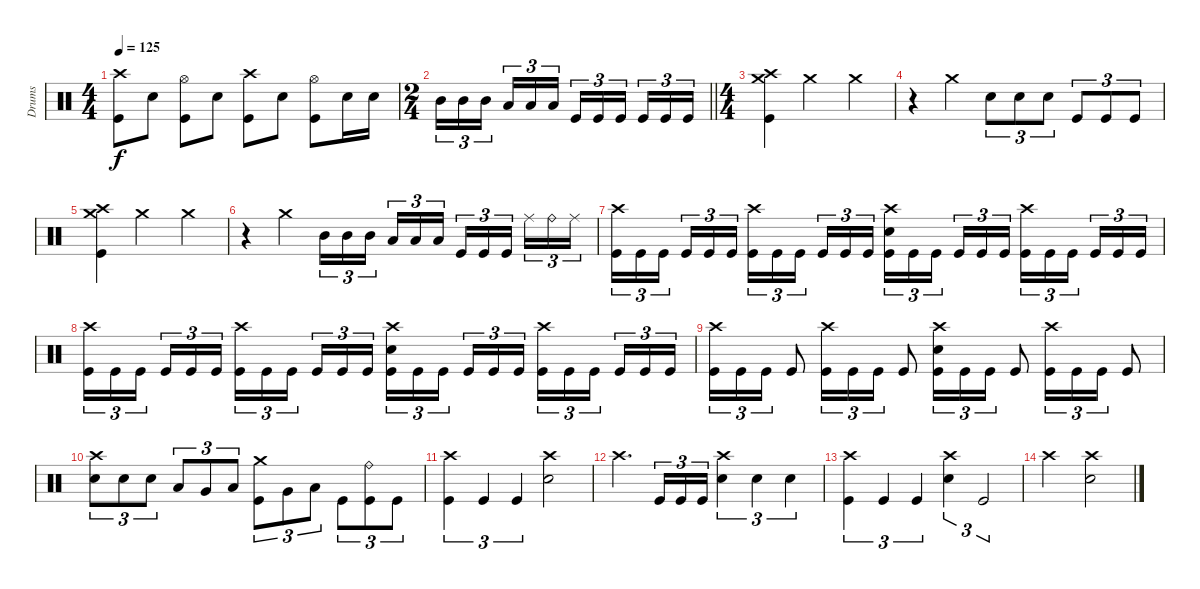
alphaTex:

\track ("Drums" "Drums") {instrument percussion}
\staff
\articulation defaults
\ts (4 4)
\tempo 125
\clef neutral
\ks c
("Crash high (hit)" "Kick (hit)").8{dy f} "Electric Snare (hit)".8 ("Hi-Hat (open)" "Kick (hit)").8 "Electric Snare (hit)".8 ("Crash high (hit)" "Kick (hit)").8 "Electric Snare (hit)".8 ("Hi-Hat (open)" "Kick (hit)").8 "Electric Snare (hit)".16 "Electric Snare (hit)".16 |
\ts (2 4)
\barLineRight lightlight "Mid Tom (hit)".16{tu (3 2)} "Mid Tom (hit)".16{tu (3 2)} "Mid Tom (hit)".16{tu (3 2) beam splitsecondary} "Low Tom (hit)".16{tu (3 2)} "Low Tom (hit)".16{tu (3 2)} "Low Tom (hit)".16{tu (3 2)} "Kick (hit)".16{tu (3 2)} "Kick (hit)".16{tu (3 2)} "Kick (hit)".16{tu (3 2) beam splitsecondary} "Kick (hit)".16{tu (3 2)} "Kick (hit)".16{tu (3 2)} "Kick (hit)".16{tu (3 2)}
|
\ts (4 4)
("Crash high (hit)" "Crash medium (hit)" "Kick (hit)").4 "Crash medium (hit)".2 "Crash medium (hit)".4 |
r.4 "Crash medium (hit)".4 "Electric Snare (hit)".8{tu (3 2)} "Electric Snare (hit)".8{tu (3 2)} "Electric Snare (hit)".8{tu (3 2)} "Kick (hit)".8{tu (3 2)} "Kick (hit)".8{tu (3 2)} "Kick (hit)".8{tu (3 2)} |
("Crash high (hit)" "Crash medium (hit)" "Kick (hit)").4 "Crash medium (hit)".2 "Crash medium (hit)".4 |
r.4 "Crash medium (hit)".4 "Mid Tom (hit)".16{tu (3 2)} "Mid Tom (hit)".16{tu (3 2)} "Mid Tom (hit)".16{tu (3 2) beam splitsecondary} "Low Tom (hit)".16{tu (3 2)} "Low Tom (hit)".16{tu (3 2)} "Low Tom (hit)".16{tu (3 2)} "Kick (hit)".16{tu (3 2)} "Kick (hit)".16{tu (3 2)} "Kick (hit)".16{tu (3 2) beam splitsecondary} "Ride (middle)".16{tu (3 2)} "Ride (bell)".16{tu (3 2)} "Ride (middle)".16{tu (3 2)} |
("Crash high (hit)" "Kick (hit)").16{tu (3 2)} "Kick (hit)".16{tu (3 2)} "Kick (hit)".16{tu (3 2) beam splitsecondary} "Kick (hit)".16{tu (3 2)} "Kick (hit)".16{tu (3 2)} "Kick (hit)".16{tu (3 2)} ("Crash high (hit)" "Kick (hit)").16{tu (3 2)} "Kick (hit)".16{tu (3 2)} "Kick (hit)".16{tu (3 2) beam splitsecondary} "Kick (hit)".16{tu (3 2)} "Kick (hit)".16{tu (3 2)} "Kick (hit)".16{tu (3 2)} ("Crash high (hit)" "Electric Snare (hit)" "Kick (hit)").16{tu (3 2)} "Kick (hit)".16{tu (3 2)} "Kick (hit)".16{tu (3 2) beam splitsecondary} "Kick (hit)".16{tu (3 2)} "Kick (hit)".16{tu (3 2)} "Kick (hit)".16{tu (3 2)} ("Crash high (hit)" "Kick (hit)").16{tu (3 2)} "Kick (hit)".16{tu (3 2)} "Kick (hit)".16{tu (3 2) beam splitsecondary} "Kick (hit)".16{tu (3 2)} "Kick (hit)".16{tu (3 2)} "Kick (hit)".16{tu (3 2)} |
("Crash high (hit)" "Kick (hit)").16{tu (3 2)} "Kick (hit)".16{tu (3 2)} "Kick (hit)".16{tu (3 2) beam splitsecondary} "Kick (hit)".16{tu (3 2)} "Kick (hit)".16{tu (3 2)} "Kick (hit)".16{tu (3 2)} ("Crash high (hit)" "Kick (hit)").16{tu (3 2)} "Kick (hit)".16{tu (3 2)} "Kick (hit)".16{tu (3 2) beam splitsecondary} "Kick (hit)".16{tu (3 2)} "Kick (hit)".16{tu (3 2)} "Kick (hit)".16{tu (3 2)} ("Crash high (hit)" "Electric Snare (hit)" "Kick (hit)").16{tu (3 2)} "Kick (hit)".16{tu (3 2)} "Kick (hit)".16{tu (3 2) beam splitsecondary} "Kick (hit)".16{tu (3 2)} "Kick (hit)".16{tu (3 2)} "Kick (hit)".16{tu (3 2)} ("Crash high (hit)" "Kick (hit)").16{tu (3 2)} "Kick (hit)".16{tu (3 2)} "Kick (hit)".16{tu (3 2) beam splitsecondary} "Kick (hit)".16{tu (3 2)} "Kick (hit)".16{tu (3 2)} "Kick (hit)".16{tu (3 2)} |
("Crash high (hit)" "Kick (hit)").16{tu (3 2)} "Kick (hit)".16{tu (3 2)} "Kick (hit)".16{tu (3 2)} "Kick (hit)".8 ("Crash high (hit)" "Kick (hit)").16{tu (3 2)} "Kick (hit)".16{tu (3 2)} "Kick (hit)".16{tu (3 2)} "Kick (hit)".8 ("Crash high (hit)" "Electric Snare (hit)" "Kick (hit)").16{tu (3 2)} "Kick (hit)".16{tu (3 2)} "Kick (hit)".16{tu (3 2)} "Kick (hit)".8 ("Crash high (hit)" "Kick (hit)").16{tu (3 2)} "Kick (hit)".16{tu (3 2)} "Kick (hit)".16{tu (3 2)} "Kick (hit)".8 |
("Crash high (hit)" "Electric Snare (hit)").8{tu (3 2)} "Electric Snare (hit)".8{tu (3 2)} "Electric Snare (hit)".8{tu (3 2)} "Low Tom (hit)".8{tu (3 2)} "Very Low Tom (hit)".8{tu (3 2)} "Low Floor Tom (hit)".8{tu (3 2)} ("Crash medium (hit)" "Kick (hit)").8{tu (3 2)} "Very Low Tom (hit)".8{tu (3 2)} "Low Floor Tom (hit)".8{tu (3 2)} "Kick (hit)".8{tu (3 2)} ("Ride (bell)" "Kick (hit)").8{tu (3 2)} "Kick (hit)".8{tu (3 2)} |
("Crash high (hit)" "Kick (hit)").4{tu (3 2)} "Kick (hit)".4{tu (3 2)} "Kick (hit)".4{tu (3 2)} ("Crash high (hit)" "Electric Snare (hit)").2 |
"Crash high (hit)".4{d} "Kick (hit)".16{tu (3 2)} "Kick (hit)".16{tu (3 2)} "Kick (hit)".16{tu (3 2)} ("Crash high (hit)" "Electric Snare (hit)").4{tu (3 2)} "Electric Snare (hit)".4{tu (3 2)} "Electric Snare (hit)".4{tu (3 2)} |
("Crash high (hit)" "Kick (hit)").4{tu (3 2)} "Kick (hit)".4{tu (3 2)} "Kick (hit)".4{tu (3 2)} ("Crash high (hit)" "Electric Snare (hit)").4{tu (3 2)} "Kick (hit)".2{tu (3 2)} |
"Crash high (hit)".2 ("Crash high (hit)" "Electric Snare (hit)").2
